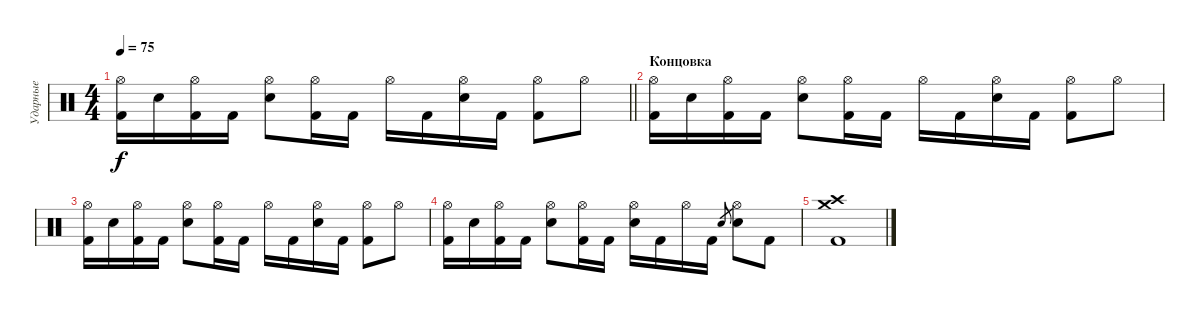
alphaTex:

\track ("Ударные" "Ударные") {instrument percussion}
\staff {score}
\articulation defaults
\ts (4 4)
\tempo 75
\clef neutral
\barLineRight lightlight
\ks c
("Hi-Hat (open)" "Kick (hit) 2").16{dy f} "Electric Snare (hit)".16 ("Hi-Hat (open)" "Kick (hit) 2").16 "Kick (hit) 2".16 ("Hi-Hat (open)" "Electric Snare (hit)").8 ("Hi-Hat (open)" "Kick (hit) 2").16 "Kick (hit) 2".16 "Hi-Hat (open)".16 "Kick (hit) 2".16 ("Hi-Hat (open)" "Electric Snare (hit)").16 "Kick (hit) 2".16 ("Hi-Hat (open)" "Kick (hit) 2").8 "Hi-Hat (open)".8 |
\section ("" "Концовка")
("Hi-Hat (open)" "Kick (hit) 2").16 "Electric Snare (hit)".16 ("Hi-Hat (open)" "Kick (hit) 2").16 "Kick (hit) 2".16 ("Hi-Hat (open)" "Electric Snare (hit)").8 ("Hi-Hat (open)" "Kick (hit) 2").16 "Kick (hit) 2".16 "Hi-Hat (open)".16 "Kick (hit) 2".16 ("Hi-Hat (open)" "Electric Snare (hit)").16 "Kick (hit) 2".16 ("Hi-Hat (open)" "Kick (hit) 2").8 "Hi-Hat (open)".8 |
("Hi-Hat (open)" "Kick (hit) 2").16 "Electric Snare (hit)".16 ("Hi-Hat (open)" "Kick (hit) 2").16 "Kick (hit) 2".16 ("Hi-Hat (open)" "Electric Snare (hit)").8 ("Hi-Hat (open)" "Kick (hit) 2").16 "Kick (hit) 2".16 "Hi-Hat (open)".16 "Kick (hit) 2".16 ("Hi-Hat (open)" "Electric Snare (hit)").16 "Kick (hit) 2".16 ("Hi-Hat (open)" "Kick (hit) 2").8 "Hi-Hat (open)".8 |
("Hi-Hat (open)" "Kick (hit) 2").16 "Electric Snare (hit)".16 ("Hi-Hat (open)" "Kick (hit) 2").16 "Kick (hit) 2".16 ("Hi-Hat (open)" "Electric Snare (hit)").8 ("Hi-Hat (open)" "Kick (hit) 2").16 "Kick (hit) 2".16 ("Hi-Hat (open)" "Electric Snare (hit)").16 "Kick (hit) 2".16 "Hi-Hat (open)".16 "Kick (hit) 2".16 "Electric Snare (hit)".8{gr} ("Hi-Hat (open)" "Electric Snare (hit)").8 "Kick (hit) 2".8 |
("Crash high (hit)" "Crash medium (hit)" "Kick (hit) 2").1
